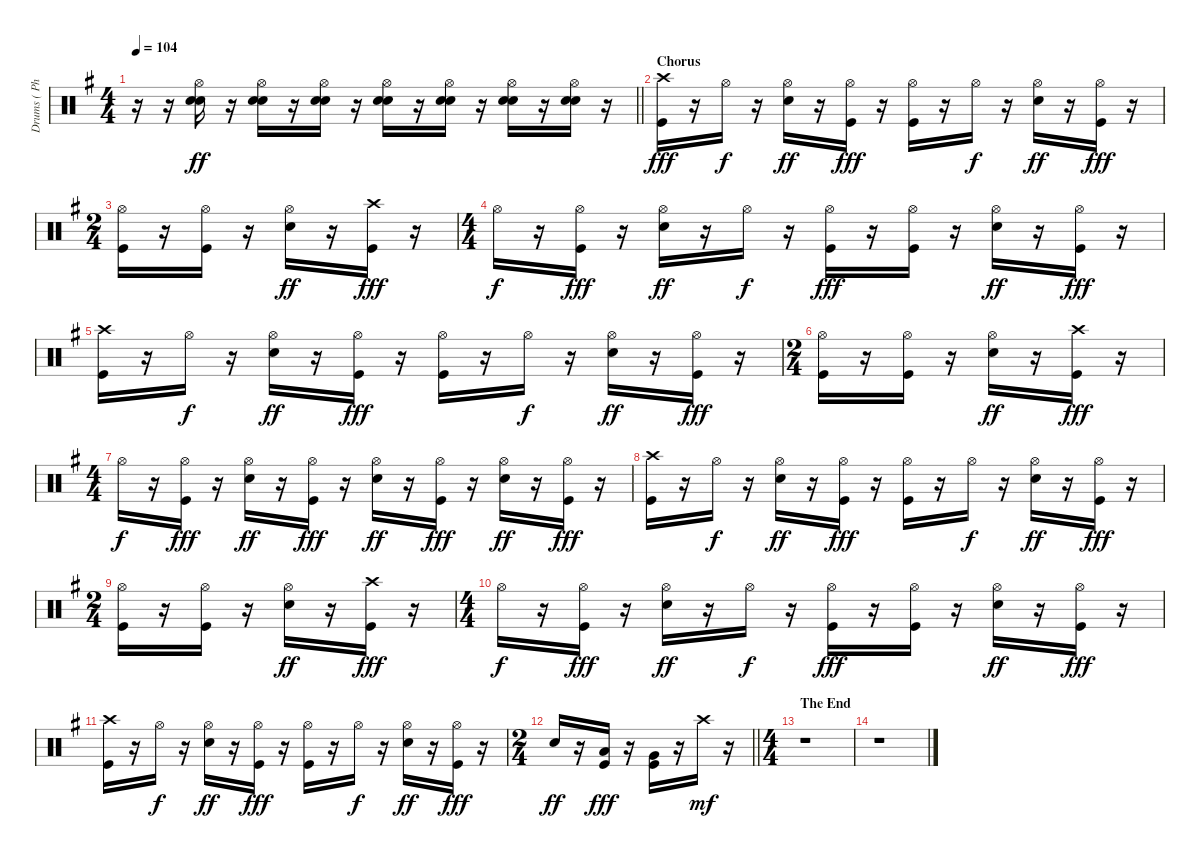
\track ("Drums ( Phillip Selway)" "Drums ( Ph") {instrument percussion}
\staff {score}
\articulation defaults
\ts (4 4)
\tempo 104
\clef neutral
\barLineRight lightlight
\ks eminor
r.16{dy fff} r.16 ("Hi-Hat (open)" "Electric Snare (hit)" "Snare (hit) 2").16{dy ff} r.16 ("Hi-Hat (open)" "Electric Snare (hit)" "Snare (hit) 2").16 r.16 ("Hi-Hat (open)" "Electric Snare (hit)" "Snare (hit) 2").16 r.16 ("Hi-Hat (open)" "Electric Snare (hit)" "Snare (hit) 2").16 r.16 ("Hi-Hat (open)" "Electric Snare (hit)" "Snare (hit) 2").16 r.16 ("Hi-Hat (open)" "Electric Snare (hit)" "Snare (hit) 2").16 r.16 ("Hi-Hat (open)" "Electric Snare (hit)" "Snare (hit) 2").16 r.16 |
\section ("" "Chorus")
("Crash high (hit)" "Kick (hit)").16{dy fff} r.16 "Hi-Hat (open)".16{dy f} r.16 ("Hi-Hat (open)" "Electric Snare (hit)").16{dy ff} r.16 ("Hi-Hat (open)" "Kick (hit)").16{dy fff} r.16 ("Hi-Hat (open)" "Kick (hit)").16 r.16 "Hi-Hat (open)".16{dy f} r.16 ("Hi-Hat (open)" "Electric Snare (hit)").16{dy ff} r.16 ("Hi-Hat (open)" "Kick (hit)").16{dy fff} r.16 |
\ts (2 4)
("Hi-Hat (open)" "Kick (hit)").16 r.16 ("Hi-Hat (open)" "Kick (hit)").16 r.16 ("Hi-Hat (open)" "Electric Snare (hit)").16{dy ff} r.16 ("Crash high (hit)" "Kick (hit)").16{dy fff} r.16 |
\ts (4 4)
"Hi-Hat (open)".16{dy f} r.16 ("Hi-Hat (open)" "Kick (hit)").16{dy fff} r.16 ("Hi-Hat (open)" "Electric Snare (hit)").16{dy ff} r.16 "Hi-Hat (open)".16{dy f} r.16 ("Hi-Hat (open)" "Kick (hit)").16{dy fff} r.16 ("Hi-Hat (open)" "Kick (hit)").16 r.16 ("Hi-Hat (open)" "Electric Snare (hit)").16{dy ff} r.16 ("Hi-Hat (open)" "Kick (hit)").16{dy fff} r.16 |
("Crash high (hit)" "Kick (hit)").16 r.16 "Hi-Hat (open)".16{dy f} r.16 ("Hi-Hat (open)" "Electric Snare (hit)").16{dy ff} r.16 ("Hi-Hat (open)" "Kick (hit)").16{dy fff} r.16 ("Hi-Hat (open)" "Kick (hit)").16 r.16 "Hi-Hat (open)".16{dy f} r.16 ("Hi-Hat (open)" "Electric Snare (hit)").16{dy ff} r.16 ("Hi-Hat (open)" "Kick (hit)").16{dy fff} r.16 |
\ts (2 4)
("Hi-Hat (open)" "Kick (hit)").16 r.16 ("Hi-Hat (open)" "Kick (hit)").16 r.16 ("Hi-Hat (open)" "Electric Snare (hit)").16{dy ff} r.16 ("Crash high (hit)" "Kick (hit)").16{dy fff} r.16 |
\ts (4 4)
"Hi-Hat (open)".16{dy f} r.16 ("Hi-Hat (open)" "Kick (hit)").16{dy fff} r.16 ("Hi-Hat (open)" "Electric Snare (hit)").16{dy ff} r.16 ("Hi-Hat (open)" "Kick (hit)").16{dy fff} r.16 ("Hi-Hat (open)" "Electric Snare (hit)").16{dy ff} r.16 ("Hi-Hat (open)" "Kick (hit)").16{dy fff} r.16 ("Hi-Hat (open)" "Electric Snare (hit)").16{dy ff} r.16 ("Hi-Hat (open)" "Kick (hit)").16{dy fff} r.16 |
("Crash high (hit)" "Kick (hit)").16 r.16 "Hi-Hat (open)".16{dy f} r.16 ("Hi-Hat (open)" "Electric Snare (hit)").16{dy ff} r.16 ("Hi-Hat (open)" "Kick (hit)").16{dy fff} r.16 ("Hi-Hat (open)" "Kick (hit)").16 r.16 "Hi-Hat (open)".16{dy f} r.16 ("Hi-Hat (open)" "Electric Snare (hit)").16{dy ff} r.16 ("Hi-Hat (open)" "Kick (hit)").16{dy fff} r.16 |
\ts (2 4)
("Hi-Hat (open)" "Kick (hit)").16 r.16 ("Hi-Hat (open)" "Kick (hit)").16 r.16 ("Hi-Hat (open)" "Electric Snare (hit)").16{dy ff} r.16 ("Crash high (hit)" "Kick (hit)").16{dy fff} r.16 |
\ts (4 4)
"Hi-Hat (open)".16{dy f} r.16 ("Hi-Hat (open)" "Kick (hit)").16{dy fff} r.16 ("Hi-Hat (open)" "Electric Snare (hit)").16{dy ff} r.16 "Hi-Hat (open)".16{dy f} r.16 ("Hi-Hat (open)" "Kick (hit)").16{dy fff} r.16 ("Hi-Hat (open)" "Kick (hit)").16 r.16 ("Hi-Hat (open)" "Electric Snare (hit)").16{dy ff} r.16 ("Hi-Hat (open)" "Kick (hit)").16{dy fff} r.16 |
("Crash high (hit)" "Kick (hit)").16 r.16 "Hi-Hat (open)".16{dy f} r.16 ("Hi-Hat (open)" "Electric Snare (hit)").16{dy ff} r.16 ("Hi-Hat (open)" "Kick (hit)").16{dy fff} r.16 ("Hi-Hat (open)" "Kick (hit)").16 r.16 "Hi-Hat (open)".16{dy f} r.16 ("Hi-Hat (open)" "Electric Snare (hit)").16{dy ff} r.16 ("Hi-Hat (open)" "Kick (hit)").16{dy fff} r.16 |
\ts (2 4)
\barLineRight lightlight "Electric Snare (hit)".16{dy ff}
r.16 ("Low Tom (hit)" "Kick (hit)").16{dy fff} r.16 ("Very Low Tom (hit)" "Kick (hit)").16 r.16 "Crash high (hit)".16{dy mf} r.16 |
\ts (4 4)
\section ("" "The End")
r.1 |
r.1
